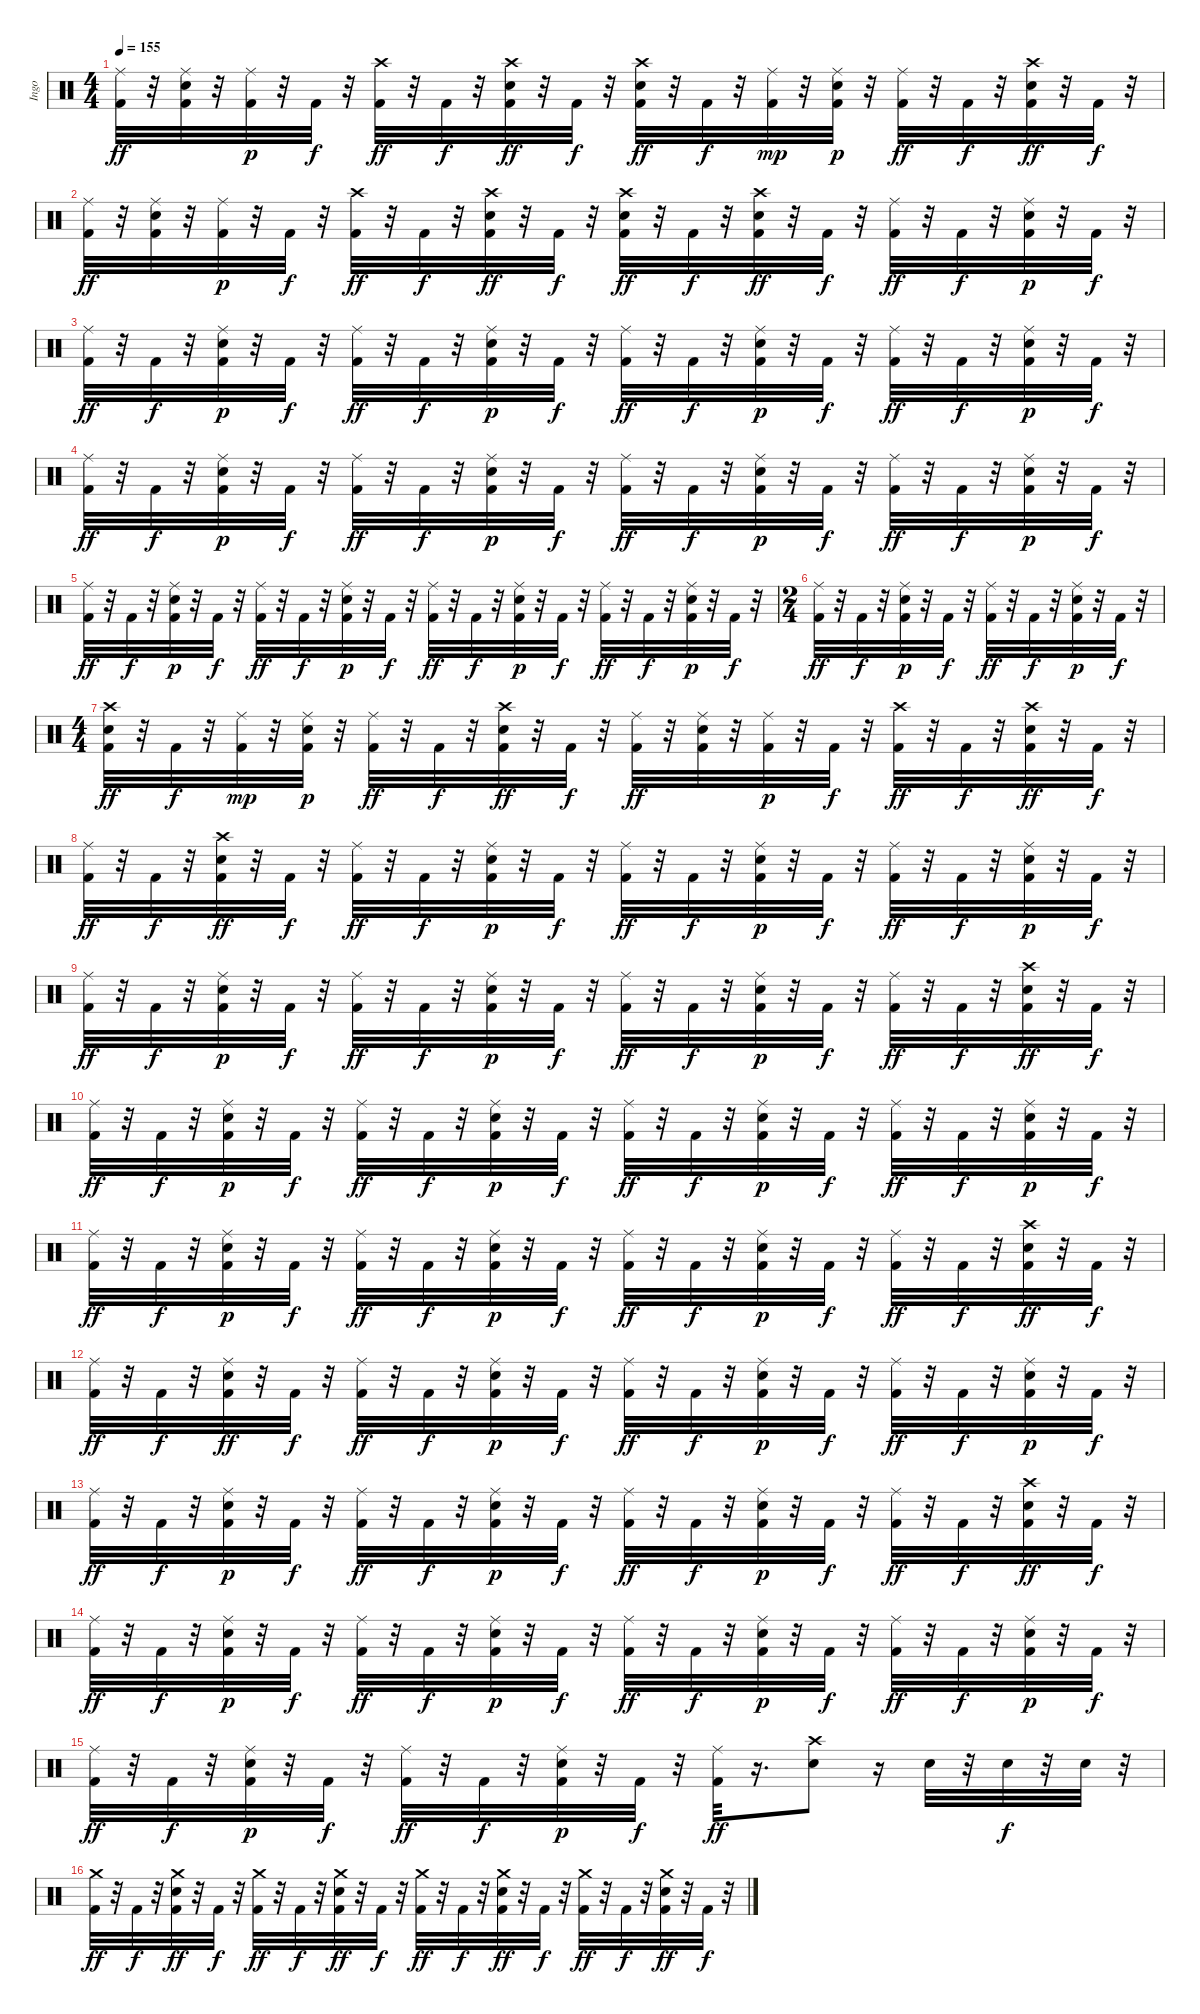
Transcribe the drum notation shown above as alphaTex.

\track ("Ingo" "Ingo") {instrument percussion}
\staff {score}
\articulation defaults
\ts (4 4)
\tempo 155
\clef neutral
\ks c
("Ride (middle)" "Kick (hit) 2").32{dy ff} r.32 ("Kick (hit) 2" "Ride (middle)" "Snare (hit) 2").32 r.32 ("Kick (hit) 2" "Ride (middle)").32{dy p} r.32 "Kick (hit) 2".32{dy f} r.32 ("Crash high (hit)" "Kick (hit) 2").32{dy ff} r.32 "Kick (hit) 2".32{dy f} r.32 ("Snare (hit) 2" "Crash high (hit)" "Kick (hit) 2").32{dy ff} r.32 "Kick (hit) 2".32{dy f} r.32 ("Kick (hit) 2" "Snare (hit) 2" "Crash high (hit)").32{dy ff} r.32 "Kick (hit) 2".32{dy f} r.32 ("Ride (middle)" "Kick (hit) 2").32{dy mp} r.32 ("Kick (hit) 2" "Snare (hit) 2" "Ride (middle)").32{dy p} r.32 ("Ride (middle)" "Kick (hit) 2").32{dy ff} r.32 "Kick (hit) 2".32{dy f} r.32 ("Snare (hit) 2" "Crash high (hit)" "Kick (hit) 2").32{dy ff} r.32 "Kick (hit) 2".32{dy f} r.32 |
("Ride (middle)" "Kick (hit) 2").32{dy ff} r.32 ("Kick (hit) 2" "Ride (middle)" "Snare (hit) 2").32 r.32 ("Kick (hit) 2" "Ride (middle)").32{dy p} r.32 "Kick (hit) 2".32{dy f} r.32 ("Crash high (hit)" "Kick (hit) 2").32{dy ff} r.32 "Kick (hit) 2".32{dy f} r.32 ("Snare (hit) 2" "Crash high (hit)" "Kick (hit) 2").32{dy ff} r.32 "Kick (hit) 2".32{dy f} r.32 ("Kick (hit) 2" "Crash high (hit)" "Snare (hit) 2").32{dy ff} r.32 "Kick (hit) 2".32{dy f} r.32 ("Kick (hit) 2" "Snare (hit) 2" "Crash high (hit)").32{dy ff} r.32 "Kick (hit) 2".32{dy f} r.32 ("Ride (middle)" "Kick (hit) 2").32{dy ff} r.32 "Kick (hit) 2".32{dy f} r.32 ("Kick (hit) 2" "Snare (hit) 2" "Ride (middle)").32{dy p} r.32 "Kick (hit) 2".32{dy f} r.32 |
("Ride (middle)" "Kick (hit) 2").32{dy ff} r.32 "Kick (hit) 2".32{dy f} r.32 ("Kick (hit) 2" "Snare (hit) 2" "Ride (middle)").32{dy p} r.32 "Kick (hit) 2".32{dy f} r.32 ("Ride (middle)" "Kick (hit) 2").32{dy ff} r.32 "Kick (hit) 2".32{dy f} r.32 ("Kick (hit) 2" "Snare (hit) 2" "Ride (middle)").32{dy p} r.32 "Kick (hit) 2".32{dy f} r.32 ("Ride (middle)" "Kick (hit) 2").32{dy ff} r.32 "Kick (hit) 2".32{dy f} r.32 ("Kick (hit) 2" "Snare (hit) 2" "Ride (middle)").32{dy p} r.32 "Kick (hit) 2".32{dy f} r.32 ("Ride (middle)" "Kick (hit) 2").32{dy ff} r.32 "Kick (hit) 2".32{dy f} r.32 ("Kick (hit) 2" "Snare (hit) 2" "Ride (middle)").32{dy p} r.32 "Kick (hit) 2".32{dy f} r.32 |
("Ride (middle)" "Kick (hit) 2").32{dy ff} r.32 "Kick (hit) 2".32{dy f} r.32 ("Kick (hit) 2" "Snare (hit) 2" "Ride (middle)").32{dy p} r.32 "Kick (hit) 2".32{dy f} r.32 ("Ride (middle)" "Kick (hit) 2").32{dy ff} r.32 "Kick (hit) 2".32{dy f} r.32 ("Kick (hit) 2" "Snare (hit) 2" "Ride (middle)").32{dy p} r.32 "Kick (hit) 2".32{dy f} r.32 ("Ride (middle)" "Kick (hit) 2").32{dy ff} r.32 "Kick (hit) 2".32{dy f} r.32 ("Kick (hit) 2" "Snare (hit) 2" "Ride (middle)").32{dy p} r.32 "Kick (hit) 2".32{dy f} r.32 ("Ride (middle)" "Kick (hit) 2").32{dy ff} r.32 "Kick (hit) 2".32{dy f} r.32 ("Kick (hit) 2" "Snare (hit) 2" "Ride (middle)").32{dy p} r.32 "Kick (hit) 2".32{dy f} r.32 |
("Ride (middle)" "Kick (hit) 2").32{dy ff} r.32 "Kick (hit) 2".32{dy f} r.32 ("Kick (hit) 2" "Snare (hit) 2" "Ride (middle)").32{dy p} r.32 "Kick (hit) 2".32{dy f} r.32 ("Ride (middle)" "Kick (hit) 2").32{dy ff} r.32 "Kick (hit) 2".32{dy f} r.32 ("Kick (hit) 2" "Snare (hit) 2" "Ride (middle)").32{dy p} r.32 "Kick (hit) 2".32{dy f} r.32 ("Ride (middle)" "Kick (hit) 2").32{dy ff} r.32 "Kick (hit) 2".32{dy f} r.32 ("Kick (hit) 2" "Snare (hit) 2" "Ride (middle)").32{dy p} r.32 "Kick (hit) 2".32{dy f} r.32 ("Ride (middle)" "Kick (hit) 2").32{dy ff} r.32 "Kick (hit) 2".32{dy f} r.32 ("Kick (hit) 2" "Snare (hit) 2" "Ride (middle)").32{dy p} r.32 "Kick (hit) 2".32{dy f} r.32 |
\ts (2 4)
("Ride (middle)" "Kick (hit) 2").32{dy ff} r.32 "Kick (hit) 2".32{dy f} r.32 ("Kick (hit) 2" "Snare (hit) 2" "Ride (middle)").32{dy p} r.32 "Kick (hit) 2".32{dy f} r.32 ("Ride (middle)" "Kick (hit) 2").32{dy ff} r.32 "Kick (hit) 2".32{dy f} r.32 ("Kick (hit) 2" "Snare (hit) 2" "Ride (middle)").32{dy p} r.32 "Kick (hit) 2".32{dy f} r.32 |
\ts (4 4)
("Kick (hit) 2" "Snare (hit) 2" "Crash high (hit)").32{dy ff} r.32 "Kick (hit) 2".32{dy f} r.32 ("Ride (middle)" "Kick (hit) 2").32{dy mp} r.32 ("Kick (hit) 2" "Snare (hit) 2" "Ride (middle)").32{dy p} r.32 ("Ride (middle)" "Kick (hit) 2").32{dy ff} r.32 "Kick (hit) 2".32{dy f} r.32 ("Snare (hit) 2" "Crash high (hit)" "Kick (hit) 2").32{dy ff} r.32 "Kick (hit) 2".32{dy f} r.32 ("Ride (middle)" "Kick (hit) 2").32{dy ff} r.32 ("Kick (hit) 2" "Ride (middle)" "Snare (hit) 2").32 r.32 ("Kick (hit) 2" "Ride (middle)").32{dy p} r.32 "Kick (hit) 2".32{dy f} r.32 ("Crash high (hit)" "Kick (hit) 2").32{dy ff} r.32 "Kick (hit) 2".32{dy f} r.32 ("Snare (hit) 2" "Crash high (hit)" "Kick (hit) 2").32{dy ff} r.32 "Kick (hit) 2".32{dy f} r.32 |
("Ride (middle)" "Kick (hit) 2").32{dy ff} r.32 "Kick (hit) 2".32{dy f} r.32 ("Snare (hit) 2" "Crash high (hit)" "Kick (hit) 2").32{dy ff} r.32 "Kick (hit) 2".32{dy f} r.32 ("Ride (middle)" "Kick (hit) 2").32{dy ff} r.32 "Kick (hit) 2".32{dy f} r.32 ("Kick (hit) 2" "Snare (hit) 2" "Ride (middle)").32{dy p} r.32 "Kick (hit) 2".32{dy f} r.32 ("Ride (middle)" "Kick (hit) 2").32{dy ff} r.32 "Kick (hit) 2".32{dy f} r.32 ("Kick (hit) 2" "Snare (hit) 2" "Ride (middle)").32{dy p} r.32 "Kick (hit) 2".32{dy f} r.32 ("Ride (middle)" "Kick (hit) 2").32{dy ff} r.32 "Kick (hit) 2".32{dy f} r.32 ("Kick (hit) 2" "Snare (hit) 2" "Ride (middle)").32{dy p} r.32 "Kick (hit) 2".32{dy f} r.32 |
("Ride (middle)" "Kick (hit) 2").32{dy ff} r.32 "Kick (hit) 2".32{dy f} r.32 ("Kick (hit) 2" "Snare (hit) 2" "Ride (middle)").32{dy p} r.32 "Kick (hit) 2".32{dy f} r.32 ("Ride (middle)" "Kick (hit) 2").32{dy ff} r.32 "Kick (hit) 2".32{dy f} r.32 ("Kick (hit) 2" "Snare (hit) 2" "Ride (middle)").32{dy p} r.32 "Kick (hit) 2".32{dy f} r.32 ("Ride (middle)" "Kick (hit) 2").32{dy ff} r.32 "Kick (hit) 2".32{dy f} r.32 ("Kick (hit) 2" "Snare (hit) 2" "Ride (middle)").32{dy p} r.32 "Kick (hit) 2".32{dy f} r.32 ("Ride (middle)" "Kick (hit) 2").32{dy ff} r.32 "Kick (hit) 2".32{dy f} r.32 ("Snare (hit) 2" "Crash high (hit)" "Kick (hit) 2").32{dy ff} r.32 "Kick (hit) 2".32{dy f} r.32 |
("Ride (middle)" "Kick (hit) 2").32{dy ff} r.32 "Kick (hit) 2".32{dy f} r.32 ("Kick (hit) 2" "Snare (hit) 2" "Ride (middle)").32{dy p} r.32 "Kick (hit) 2".32{dy f} r.32 ("Ride (middle)" "Kick (hit) 2").32{dy ff} r.32 "Kick (hit) 2".32{dy f} r.32 ("Kick (hit) 2" "Snare (hit) 2" "Ride (middle)").32{dy p} r.32 "Kick (hit) 2".32{dy f} r.32 ("Ride (middle)" "Kick (hit) 2").32{dy ff} r.32 "Kick (hit) 2".32{dy f} r.32 ("Kick (hit) 2" "Snare (hit) 2" "Ride (middle)").32{dy p} r.32 "Kick (hit) 2".32{dy f} r.32 ("Ride (middle)" "Kick (hit) 2").32{dy ff} r.32 "Kick (hit) 2".32{dy f} r.32 ("Kick (hit) 2" "Snare (hit) 2" "Ride (middle)").32{dy p} r.32 "Kick (hit) 2".32{dy f} r.32 |
("Ride (middle)" "Kick (hit) 2").32{dy ff} r.32 "Kick (hit) 2".32{dy f} r.32 ("Kick (hit) 2" "Snare (hit) 2" "Ride (middle)").32{dy p} r.32 "Kick (hit) 2".32{dy f} r.32 ("Ride (middle)" "Kick (hit) 2").32{dy ff} r.32 "Kick (hit) 2".32{dy f} r.32 ("Kick (hit) 2" "Snare (hit) 2" "Ride (middle)").32{dy p} r.32 "Kick (hit) 2".32{dy f} r.32 ("Ride (middle)" "Kick (hit) 2").32{dy ff} r.32 "Kick (hit) 2".32{dy f} r.32 ("Kick (hit) 2" "Snare (hit) 2" "Ride (middle)").32{dy p} r.32 "Kick (hit) 2".32{dy f} r.32 ("Ride (middle)" "Kick (hit) 2").32{dy ff} r.32 "Kick (hit) 2".32{dy f} r.32 ("Snare (hit) 2" "Crash high (hit)" "Kick (hit) 2").32{dy ff} r.32 "Kick (hit) 2".32{dy f} r.32 |
("Ride (middle)" "Kick (hit) 2").32{dy ff} r.32 "Kick (hit) 2".32{dy f} r.32 ("Kick (hit) 2" "Ride (middle)" "Snare (hit) 2").32{dy ff} r.32 "Kick (hit) 2".32{dy f} r.32 ("Ride (middle)" "Kick (hit) 2").32{dy ff} r.32 "Kick (hit) 2".32{dy f} r.32 ("Kick (hit) 2" "Snare (hit) 2" "Ride (middle)").32{dy p} r.32 "Kick (hit) 2".32{dy f} r.32 ("Ride (middle)" "Kick (hit) 2").32{dy ff} r.32 "Kick (hit) 2".32{dy f} r.32 ("Kick (hit) 2" "Snare (hit) 2" "Ride (middle)").32{dy p} r.32 "Kick (hit) 2".32{dy f} r.32 ("Ride (middle)" "Kick (hit) 2").32{dy ff} r.32 "Kick (hit) 2".32{dy f} r.32 ("Kick (hit) 2" "Snare (hit) 2" "Ride (middle)").32{dy p} r.32 "Kick (hit) 2".32{dy f} r.32 |
("Ride (middle)" "Kick (hit) 2").32{dy ff} r.32 "Kick (hit) 2".32{dy f} r.32 ("Kick (hit) 2" "Snare (hit) 2" "Ride (middle)").32{dy p} r.32 "Kick (hit) 2".32{dy f} r.32 ("Ride (middle)" "Kick (hit) 2").32{dy ff} r.32 "Kick (hit) 2".32{dy f} r.32 ("Kick (hit) 2" "Snare (hit) 2" "Ride (middle)").32{dy p} r.32 "Kick (hit) 2".32{dy f} r.32 ("Ride (middle)" "Kick (hit) 2").32{dy ff} r.32 "Kick (hit) 2".32{dy f} r.32 ("Kick (hit) 2" "Snare (hit) 2" "Ride (middle)").32{dy p} r.32 "Kick (hit) 2".32{dy f} r.32 ("Ride (middle)" "Kick (hit) 2").32{dy ff} r.32 "Kick (hit) 2".32{dy f} r.32 ("Snare (hit) 2" "Crash high (hit)" "Kick (hit) 2").32{dy ff} r.32 "Kick (hit) 2".32{dy f} r.32 |
("Ride (middle)" "Kick (hit) 2").32{dy ff} r.32 "Kick (hit) 2".32{dy f} r.32 ("Kick (hit) 2" "Snare (hit) 2" "Ride (middle)").32{dy p} r.32 "Kick (hit) 2".32{dy f} r.32 ("Ride (middle)" "Kick (hit) 2").32{dy ff} r.32 "Kick (hit) 2".32{dy f} r.32 ("Kick (hit) 2" "Snare (hit) 2" "Ride (middle)").32{dy p} r.32 "Kick (hit) 2".32{dy f} r.32 ("Ride (middle)" "Kick (hit) 2").32{dy ff} r.32 "Kick (hit) 2".32{dy f} r.32 ("Kick (hit) 2" "Snare (hit) 2" "Ride (middle)").32{dy p} r.32 "Kick (hit) 2".32{dy f} r.32 ("Ride (middle)" "Kick (hit) 2").32{dy ff} r.32 "Kick (hit) 2".32{dy f} r.32 ("Kick (hit) 2" "Snare (hit) 2" "Ride (middle)").32{dy p} r.32 "Kick (hit) 2".32{dy f} r.32 |
("Ride (middle)" "Kick (hit) 2").32{dy ff} r.32 "Kick (hit) 2".32{dy f} r.32 ("Kick (hit) 2" "Snare (hit) 2" "Ride (middle)").32{dy p} r.32 "Kick (hit) 2".32{dy f} r.32 ("Ride (middle)" "Kick (hit) 2").32{dy ff} r.32 "Kick (hit) 2".32{dy f} r.32 ("Kick (hit) 2" "Snare (hit) 2" "Ride (middle)").32{dy p} r.32 "Kick (hit) 2".32{dy f} r.32 ("Ride (middle)" "Kick (hit) 2").32{dy ff} r.16{d} ("Crash high (hit)" "Snare (hit) 2").8 r.16 "Snare (hit) 2".32 r.32 "Snare (hit) 2".32{dy f} r.32 "Snare (hit) 2".32 r.32 |
("Crash medium (hit)" "Kick (hit) 2").32{dy ff} r.32 "Kick (hit) 2".32{dy f} r.32 ("Kick (hit) 2" "Crash medium (hit)" "Snare (hit) 2").32{dy ff} r.32 "Kick (hit) 2".32{dy f} r.32 ("Crash medium (hit)" "Kick (hit) 2").32{dy ff} r.32 "Kick (hit) 2".32{dy f} r.32 ("Kick (hit) 2" "Crash medium (hit)" "Snare (hit) 2").32{dy ff} r.32 "Kick (hit) 2".32{dy f} r.32 ("Crash medium (hit)" "Kick (hit) 2").32{dy ff} r.32 "Kick (hit) 2".32{dy f} r.32 ("Kick (hit) 2" "Crash medium (hit)" "Snare (hit) 2").32{dy ff} r.32 "Kick (hit) 2".32{dy f} r.32 ("Crash medium (hit)" "Kick (hit) 2").32{dy ff} r.32 "Kick (hit) 2".32{dy f} r.32 ("Kick (hit) 2" "Crash medium (hit)" "Snare (hit) 2").32{dy ff} r.32 "Kick (hit) 2".32{dy f} r.32
